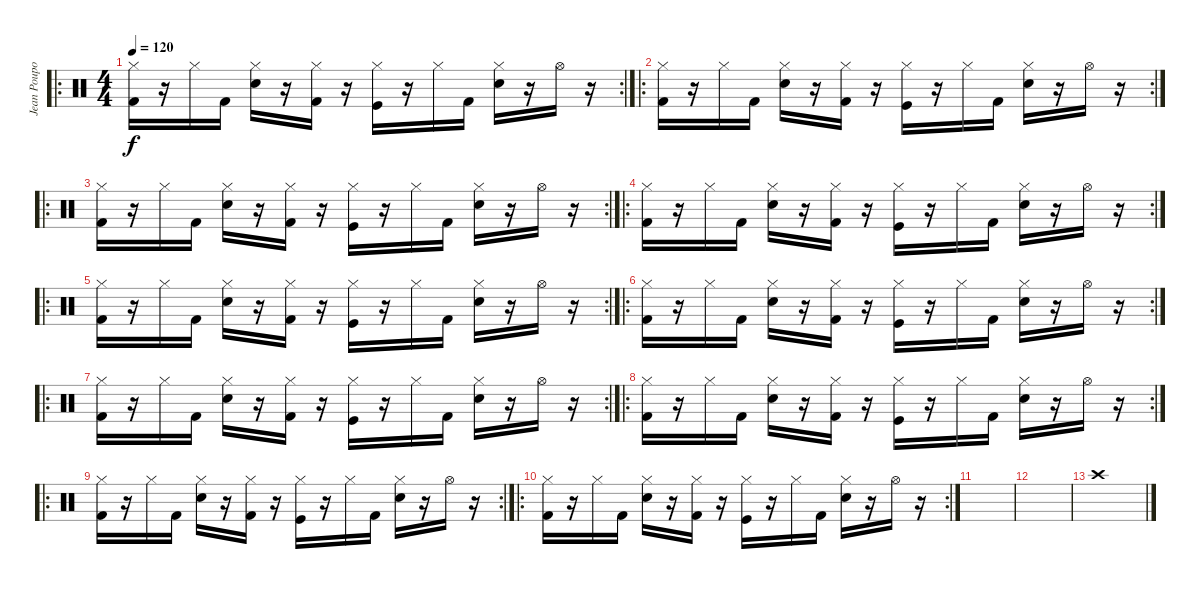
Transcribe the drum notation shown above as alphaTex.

\track ("Jean Poupoutich" "Jean Poupo") {instrument percussion}
\staff {score}
\articulation defaults
\ro
\rc 2
\ts (4 4)
\tempo 120
\clef neutral
\ks c
("Hi-Hat (closed)" "Kick (hit) 2").16{dy f} r.16 "Hi-Hat (closed)".16 "Kick (hit) 2".16 ("Hi-Hat (closed)" "Snare (hit) 2").16 r.16 ("Hi-Hat (closed)" "Kick (hit) 2").16 r.16 ("Hi-Hat (closed)" "Kick (hit)").16 r.16 "Hi-Hat (closed)".16 "Kick (hit) 2".16 ("Hi-Hat (closed)" "Snare (hit) 2").16 r.16 "Hi-Hat (open)".16 r.16 |
\ro
\rc 2
("Hi-Hat (closed)" "Kick (hit) 2").16 r.16 "Hi-Hat (closed)".16 "Kick (hit) 2".16 ("Hi-Hat (closed)" "Snare (hit) 2").16 r.16 ("Hi-Hat (closed)" "Kick (hit) 2").16 r.16 ("Hi-Hat (closed)" "Kick (hit)").16 r.16 "Hi-Hat (closed)".16 "Kick (hit) 2".16 ("Hi-Hat (closed)" "Snare (hit) 2").16 r.16 "Hi-Hat (open)".16 r.16 |
\ro
\rc 2
("Hi-Hat (closed)" "Kick (hit) 2").16 r.16 "Hi-Hat (closed)".16 "Kick (hit) 2".16 ("Hi-Hat (closed)" "Snare (hit) 2").16 r.16 ("Hi-Hat (closed)" "Kick (hit) 2").16 r.16 ("Hi-Hat (closed)" "Kick (hit)").16 r.16 "Hi-Hat (closed)".16 "Kick (hit) 2".16 ("Hi-Hat (closed)" "Snare (hit) 2").16 r.16 "Hi-Hat (open)".16 r.16 |
\ro
\rc 2
("Hi-Hat (closed)" "Kick (hit) 2").16 r.16 "Hi-Hat (closed)".16 "Kick (hit) 2".16 ("Hi-Hat (closed)" "Snare (hit) 2").16 r.16 ("Hi-Hat (closed)" "Kick (hit) 2").16 r.16 ("Hi-Hat (closed)" "Kick (hit)").16 r.16 "Hi-Hat (closed)".16 "Kick (hit) 2".16 ("Hi-Hat (closed)" "Snare (hit) 2").16 r.16 "Hi-Hat (open)".16 r.16 |
\ro
\rc 2
("Hi-Hat (closed)" "Kick (hit) 2").16 r.16 "Hi-Hat (closed)".16 "Kick (hit) 2".16 ("Hi-Hat (closed)" "Snare (hit) 2").16 r.16 ("Hi-Hat (closed)" "Kick (hit) 2").16 r.16 ("Hi-Hat (closed)" "Kick (hit)").16 r.16 "Hi-Hat (closed)".16 "Kick (hit) 2".16 ("Hi-Hat (closed)" "Snare (hit) 2").16 r.16 "Hi-Hat (open)".16 r.16 |
\ro
\rc 2
("Hi-Hat (closed)" "Kick (hit) 2").16 r.16 "Hi-Hat (closed)".16 "Kick (hit) 2".16 ("Hi-Hat (closed)" "Snare (hit) 2").16 r.16 ("Hi-Hat (closed)" "Kick (hit) 2").16 r.16 ("Hi-Hat (closed)" "Kick (hit)").16 r.16 "Hi-Hat (closed)".16 "Kick (hit) 2".16 ("Hi-Hat (closed)" "Snare (hit) 2").16 r.16 "Hi-Hat (open)".16 r.16 |
\ro
\rc 2
("Hi-Hat (closed)" "Kick (hit) 2").16 r.16 "Hi-Hat (closed)".16 "Kick (hit) 2".16 ("Hi-Hat (closed)" "Snare (hit) 2").16 r.16 ("Hi-Hat (closed)" "Kick (hit) 2").16 r.16 ("Hi-Hat (closed)" "Kick (hit)").16 r.16 "Hi-Hat (closed)".16 "Kick (hit) 2".16 ("Hi-Hat (closed)" "Snare (hit) 2").16 r.16 "Hi-Hat (open)".16 r.16 |
\ro
\rc 2
("Hi-Hat (closed)" "Kick (hit) 2").16 r.16 "Hi-Hat (closed)".16 "Kick (hit) 2".16 ("Hi-Hat (closed)" "Snare (hit) 2").16 r.16 ("Hi-Hat (closed)" "Kick (hit) 2").16 r.16 ("Hi-Hat (closed)" "Kick (hit)").16 r.16 "Hi-Hat (closed)".16 "Kick (hit) 2".16 ("Hi-Hat (closed)" "Snare (hit) 2").16 r.16 "Hi-Hat (open)".16 r.16 |
\ro
\rc 2
("Hi-Hat (closed)" "Kick (hit) 2").16 r.16 "Hi-Hat (closed)".16 "Kick (hit) 2".16 ("Hi-Hat (closed)" "Snare (hit) 2").16 r.16 ("Hi-Hat (closed)" "Kick (hit) 2").16 r.16 ("Hi-Hat (closed)" "Kick (hit)").16 r.16 "Hi-Hat (closed)".16 "Kick (hit) 2".16 ("Hi-Hat (closed)" "Snare (hit) 2").16 r.16 "Hi-Hat (open)".16 r.16 |
\ro
\rc 2
("Hi-Hat (closed)" "Kick (hit) 2").16 r.16 "Hi-Hat (closed)".16 "Kick (hit) 2".16 ("Hi-Hat (closed)" "Snare (hit) 2").16 r.16 ("Hi-Hat (closed)" "Kick (hit) 2").16 r.16 ("Hi-Hat (closed)" "Kick (hit)").16 r.16 "Hi-Hat (closed)".16 "Kick (hit) 2".16 ("Hi-Hat (closed)" "Snare (hit) 2").16 r.16 "Hi-Hat (open)".16 r.16 |
|
|
"Crash high (hit)".1
